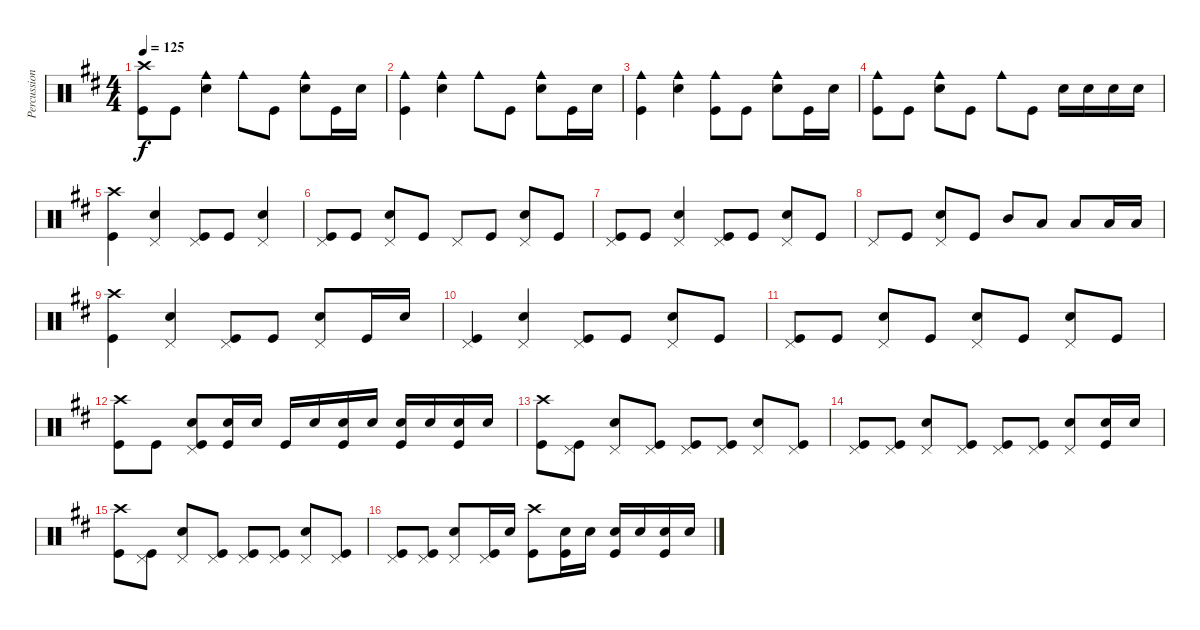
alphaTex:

\track ("Percussion" "Percussion") {instrument percussion}
\staff {score}
\articulation defaults
\ts (4 4)
\tempo 125
\clef neutral
\ks d
("Crash high (hit)" "Kick (hit)").8{dy f} "Kick (hit)".8 ("Cowbell medium (hit)" "Snare (hit) 2").4 "Cowbell medium (hit)".8 "Kick (hit)".8 ("Cowbell medium (hit)" "Snare (hit) 2").8 "Kick (hit)".16 "Snare (hit) 2".16 |
("Cowbell medium (hit)" "Kick (hit)").4 ("Cowbell medium (hit)" "Snare (hit) 2").4 "Cowbell medium (hit)".8 "Kick (hit)".8 ("Cowbell medium (hit)" "Snare (hit) 2").8 "Kick (hit)".16 "Snare (hit) 2".16 |
("Cowbell medium (hit)" "Kick (hit)").4 ("Cowbell medium (hit)" "Snare (hit) 2").4 ("Cowbell medium (hit)" "Kick (hit)").8 "Kick (hit)".8 ("Cowbell medium (hit)" "Snare (hit) 2").8 "Kick (hit)".16 "Snare (hit) 2".16 |
("Cowbell medium (hit)" "Kick (hit)").8 "Kick (hit)".8 ("Cowbell medium (hit)" "Snare (hit) 2").8 "Kick (hit)".8 "Cowbell medium (hit)".8 "Kick (hit)".8 "Snare (hit) 2".16 "Snare (hit) 2".16 "Snare (hit) 2".16 "Snare (hit) 2".16 |
("Crash high (hit)" "Kick (hit)").4 ("Pedal Hi-Hat (hit)" "Snare (hit) 2").4 ("Pedal Hi-Hat (hit)" "Kick (hit)").8 "Kick (hit)".8 ("Pedal Hi-Hat (hit)" "Snare (hit) 2").4 |
("Pedal Hi-Hat (hit)" "Kick (hit)").8 "Kick (hit)".8 ("Pedal Hi-Hat (hit)" "Snare (hit) 2").8 "Kick (hit)".8 "Pedal Hi-Hat (hit)".8 "Kick (hit)".8 ("Pedal Hi-Hat (hit)" "Snare (hit) 2").8 "Kick (hit)".8 |
("Pedal Hi-Hat (hit)" "Kick (hit)").8 "Kick (hit)".8 ("Pedal Hi-Hat (hit)" "Snare (hit) 2").4 ("Pedal Hi-Hat (hit)" "Kick (hit)").8 "Kick (hit)".8 ("Pedal Hi-Hat (hit)" "Snare (hit) 2").8 "Kick (hit)".8 |
"Pedal Hi-Hat (hit)".8 "Kick (hit)".8 ("Pedal Hi-Hat (hit)" "Snare (hit) 2").8 "Kick (hit)".8 "Mid Tom (hit)".8 "Low Tom (hit)".8 "Low Tom (hit)".8 "Low Tom (hit)".16 "Low Tom (hit)".16 |
("Crash high (hit)" "Kick (hit)").4 ("Pedal Hi-Hat (hit)" "Snare (hit) 2").4 ("Pedal Hi-Hat (hit)" "Kick (hit)").8 "Kick (hit)".8 ("Pedal Hi-Hat (hit)" "Snare (hit) 2").8 "Kick (hit)".16 "Snare (hit) 2".16 |
("Pedal Hi-Hat (hit)" "Kick (hit)").4 ("Pedal Hi-Hat (hit)" "Snare (hit) 2").4 ("Pedal Hi-Hat (hit)" "Kick (hit)").8 "Kick (hit)".8 ("Pedal Hi-Hat (hit)" "Snare (hit) 2").8 "Kick (hit)".8 |
("Pedal Hi-Hat (hit)" "Kick (hit)").8 "Kick (hit)".8 ("Pedal Hi-Hat (hit)" "Snare (hit) 2").8 "Kick (hit)".8 ("Pedal Hi-Hat (hit)" "Snare (hit) 2").8 "Kick (hit)".8 ("Pedal Hi-Hat (hit)" "Snare (hit) 2").8 "Kick (hit)".8 |
("Crash high (hit)" "Kick (hit)").8 "Kick (hit)".8 ("Pedal Hi-Hat (hit)" "Snare (hit) 2" "Kick (hit)").8 ("Snare (hit) 2" "Kick (hit)").16 "Snare (hit) 2".16 "Kick (hit)".16 "Snare (hit) 2".16 ("Snare (hit) 2" "Kick (hit)").16 "Snare (hit) 2".16 ("Snare (hit) 2" "Kick (hit)").16 "Snare (hit) 2".16 ("Snare (hit) 2" "Kick (hit)").16 "Snare (hit) 2".16 |
("Crash high (hit)" "Kick (hit)").8 ("Pedal Hi-Hat (hit)" "Kick (hit)").8 ("Pedal Hi-Hat (hit)" "Snare (hit) 2").8 ("Pedal Hi-Hat (hit)" "Kick (hit)").8 ("Pedal Hi-Hat (hit)" "Kick (hit)").8 ("Pedal Hi-Hat (hit)" "Kick (hit)").8 ("Pedal Hi-Hat (hit)" "Snare (hit) 2").8 ("Pedal Hi-Hat (hit)" "Kick (hit)").8 |
("Pedal Hi-Hat (hit)" "Kick (hit)").8 ("Pedal Hi-Hat (hit)" "Kick (hit)").8 ("Pedal Hi-Hat (hit)" "Snare (hit) 2").8 ("Pedal Hi-Hat (hit)" "Kick (hit)").8 ("Pedal Hi-Hat (hit)" "Kick (hit)").8 ("Pedal Hi-Hat (hit)" "Kick (hit)").8 ("Pedal Hi-Hat (hit)" "Snare (hit) 2").8 ("Snare (hit) 2" "Kick (hit)").16 "Snare (hit) 2".16 |
("Crash high (hit)" "Kick (hit)").8 ("Pedal Hi-Hat (hit)" "Kick (hit)").8 ("Pedal Hi-Hat (hit)" "Snare (hit) 2").8 ("Pedal Hi-Hat (hit)" "Kick (hit)").8 ("Pedal Hi-Hat (hit)" "Kick (hit)").8 ("Pedal Hi-Hat (hit)" "Kick (hit)").8 ("Pedal Hi-Hat (hit)" "Snare (hit) 2").8 ("Pedal Hi-Hat (hit)" "Kick (hit)").8 |
("Pedal Hi-Hat (hit)" "Kick (hit)").8 ("Pedal Hi-Hat (hit)" "Kick (hit)").8 ("Pedal Hi-Hat (hit)" "Snare (hit) 2").8 ("Pedal Hi-Hat (hit)" "Kick (hit)").16 "Snare (hit) 2".16 ("Crash high (hit)" "Kick (hit)").8 ("Snare (hit) 2" "Kick (hit)").16 "Snare (hit) 2".16 ("Snare (hit) 2" "Kick (hit)").16 "Snare (hit) 2".16 ("Snare (hit) 2" "Kick (hit)").16 "Snare (hit) 2".16
